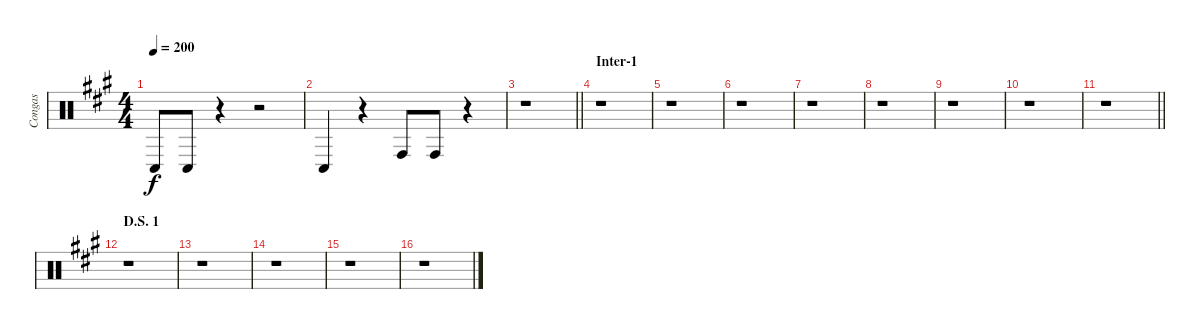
\track ("Congas" "Congas") {instrument percussion}
\staff {score}
\articulation defaults
\ts (4 4)
\tempo 200
\clef neutral
\ks a "Conga low (hit)".8{dy f} "Conga low (hit)".8
r.4 r.2 |
"Conga low (hit)".4 r.4 "Conga high (hit)".8 "Conga high (hit)".8 r.4 |
\barLineRight lightlight
r.1 |
\section ("" "Inter-1")
r.1 |
r.1 |
r.1 |
r.1 |
r.1 |
r.1 |
r.1 |
\barLineRight lightlight
r.1 |
\section ("" "D.S. 1")
r.1 |
r.1 |
r.1 |
r.1 |
r.1
